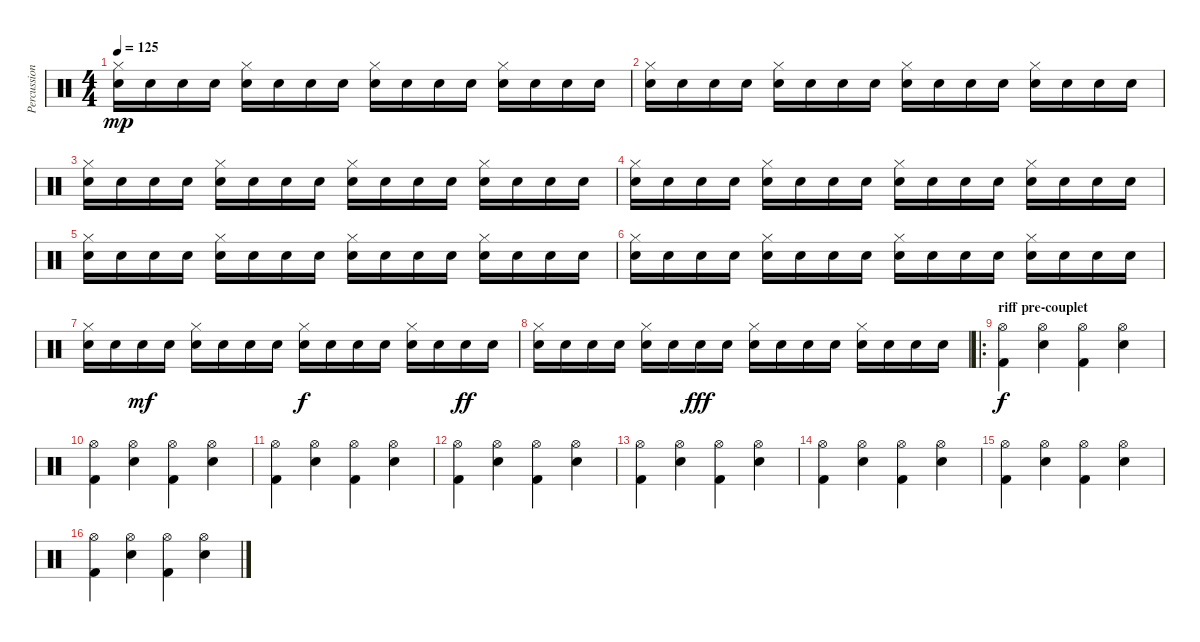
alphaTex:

\track ("Percussions" "Percussion") {instrument percussion}
\staff {score}
\articulation defaults
\ts (4 4)
\tempo 125
\clef neutral
\ks c
("Hi-Hat (closed)" "Electric Snare (hit)").16{dy mp} "Electric Snare (hit)".16 "Electric Snare (hit)".16 "Electric Snare (hit)".16 ("Hi-Hat (closed)" "Electric Snare (hit)").16 "Electric Snare (hit)".16 "Electric Snare (hit)".16 "Electric Snare (hit)".16 ("Hi-Hat (closed)" "Electric Snare (hit)").16 "Electric Snare (hit)".16 "Electric Snare (hit)".16 "Electric Snare (hit)".16 ("Hi-Hat (closed)" "Electric Snare (hit)").16 "Electric Snare (hit)".16 "Electric Snare (hit)".16 "Electric Snare (hit)".16 |
("Hi-Hat (closed)" "Electric Snare (hit)").16 "Electric Snare (hit)".16 "Electric Snare (hit)".16 "Electric Snare (hit)".16 ("Hi-Hat (closed)" "Electric Snare (hit)").16 "Electric Snare (hit)".16 "Electric Snare (hit)".16 "Electric Snare (hit)".16 ("Hi-Hat (closed)" "Electric Snare (hit)").16 "Electric Snare (hit)".16 "Electric Snare (hit)".16 "Electric Snare (hit)".16 ("Hi-Hat (closed)" "Electric Snare (hit)").16 "Electric Snare (hit)".16 "Electric Snare (hit)".16 "Electric Snare (hit)".16 |
("Hi-Hat (closed)" "Electric Snare (hit)").16 "Electric Snare (hit)".16 "Electric Snare (hit)".16 "Electric Snare (hit)".16 ("Hi-Hat (closed)" "Electric Snare (hit)").16 "Electric Snare (hit)".16 "Electric Snare (hit)".16 "Electric Snare (hit)".16 ("Hi-Hat (closed)" "Electric Snare (hit)").16 "Electric Snare (hit)".16 "Electric Snare (hit)".16 "Electric Snare (hit)".16 ("Hi-Hat (closed)" "Electric Snare (hit)").16 "Electric Snare (hit)".16 "Electric Snare (hit)".16 "Electric Snare (hit)".16 |
("Hi-Hat (closed)" "Electric Snare (hit)").16 "Electric Snare (hit)".16 "Electric Snare (hit)".16 "Electric Snare (hit)".16 ("Hi-Hat (closed)" "Electric Snare (hit)").16 "Electric Snare (hit)".16 "Electric Snare (hit)".16 "Electric Snare (hit)".16 ("Hi-Hat (closed)" "Electric Snare (hit)").16 "Electric Snare (hit)".16 "Electric Snare (hit)".16 "Electric Snare (hit)".16 ("Hi-Hat (closed)" "Electric Snare (hit)").16 "Electric Snare (hit)".16 "Electric Snare (hit)".16 "Electric Snare (hit)".16 |
("Hi-Hat (closed)" "Electric Snare (hit)").16 "Electric Snare (hit)".16 "Electric Snare (hit)".16 "Electric Snare (hit)".16 ("Hi-Hat (closed)" "Electric Snare (hit)").16 "Electric Snare (hit)".16 "Electric Snare (hit)".16 "Electric Snare (hit)".16 ("Hi-Hat (closed)" "Electric Snare (hit)").16 "Electric Snare (hit)".16 "Electric Snare (hit)".16 "Electric Snare (hit)".16 ("Hi-Hat (closed)" "Electric Snare (hit)").16 "Electric Snare (hit)".16 "Electric Snare (hit)".16 "Electric Snare (hit)".16 |
("Hi-Hat (closed)" "Electric Snare (hit)").16 "Electric Snare (hit)".16 "Electric Snare (hit)".16 "Electric Snare (hit)".16 ("Hi-Hat (closed)" "Electric Snare (hit)").16 "Electric Snare (hit)".16 "Electric Snare (hit)".16 "Electric Snare (hit)".16 ("Hi-Hat (closed)" "Electric Snare (hit)").16 "Electric Snare (hit)".16 "Electric Snare (hit)".16 "Electric Snare (hit)".16 ("Hi-Hat (closed)" "Electric Snare (hit)").16 "Electric Snare (hit)".16 "Electric Snare (hit)".16 "Electric Snare (hit)".16 |
("Hi-Hat (closed)" "Electric Snare (hit)").16 "Electric Snare (hit)".16 "Electric Snare (hit)".16{dy mf} "Electric Snare (hit)".16 ("Hi-Hat (closed)" "Electric Snare (hit)").16 "Electric Snare (hit)".16 "Electric Snare (hit)".16 "Electric Snare (hit)".16 ("Hi-Hat (closed)" "Electric Snare (hit)").16{dy f} "Electric Snare (hit)".16 "Electric Snare (hit)".16 "Electric Snare (hit)".16 ("Hi-Hat (closed)" "Electric Snare (hit)").16 "Electric Snare (hit)".16 "Electric Snare (hit)".16{dy ff} "Electric Snare (hit)".16 |
("Hi-Hat (closed)" "Electric Snare (hit)").16 "Electric Snare (hit)".16 "Electric Snare (hit)".16 "Electric Snare (hit)".16 ("Hi-Hat (closed)" "Electric Snare (hit)").16 "Electric Snare (hit)".16 "Electric Snare (hit)".16{dy fff} "Electric Snare (hit)".16 ("Hi-Hat (closed)" "Electric Snare (hit)").16 "Electric Snare (hit)".16 "Electric Snare (hit)".16 "Electric Snare (hit)".16 ("Hi-Hat (closed)" "Electric Snare (hit)").16 "Electric Snare (hit)".16 "Electric Snare (hit)".16 "Electric Snare (hit)".16 |
\ro
\section ("" "riff pre-couplet ")
("Hi-Hat (open)" "Kick (hit) 2").4{dy f} ("Hi-Hat (open)" "Electric Snare (hit)").4 ("Hi-Hat (open)" "Kick (hit) 2").4 ("Hi-Hat (open)" "Electric Snare (hit)").4 |
("Hi-Hat (open)" "Kick (hit) 2").4 ("Hi-Hat (open)" "Electric Snare (hit)").4 ("Hi-Hat (open)" "Kick (hit) 2").4 ("Hi-Hat (open)" "Electric Snare (hit)").4 |
("Hi-Hat (open)" "Kick (hit) 2").4 ("Hi-Hat (open)" "Electric Snare (hit)").4 ("Hi-Hat (open)" "Kick (hit) 2").4 ("Hi-Hat (open)" "Electric Snare (hit)").4 |
("Hi-Hat (open)" "Kick (hit) 2").4 ("Hi-Hat (open)" "Electric Snare (hit)").4 ("Hi-Hat (open)" "Kick (hit) 2").4 ("Hi-Hat (open)" "Electric Snare (hit)").4 |
("Hi-Hat (open)" "Kick (hit) 2").4 ("Hi-Hat (open)" "Electric Snare (hit)").4 ("Hi-Hat (open)" "Kick (hit) 2").4 ("Hi-Hat (open)" "Electric Snare (hit)").4 |
("Hi-Hat (open)" "Kick (hit) 2").4 ("Hi-Hat (open)" "Electric Snare (hit)").4 ("Hi-Hat (open)" "Kick (hit) 2").4 ("Hi-Hat (open)" "Electric Snare (hit)").4 |
("Hi-Hat (open)" "Kick (hit) 2").4 ("Hi-Hat (open)" "Electric Snare (hit)").4 ("Hi-Hat (open)" "Kick (hit) 2").4 ("Hi-Hat (open)" "Electric Snare (hit)").4 |
("Hi-Hat (open)" "Kick (hit) 2").4 ("Hi-Hat (open)" "Electric Snare (hit)").4 ("Hi-Hat (open)" "Kick (hit) 2").4 ("Hi-Hat (open)" "Electric Snare (hit)").4
